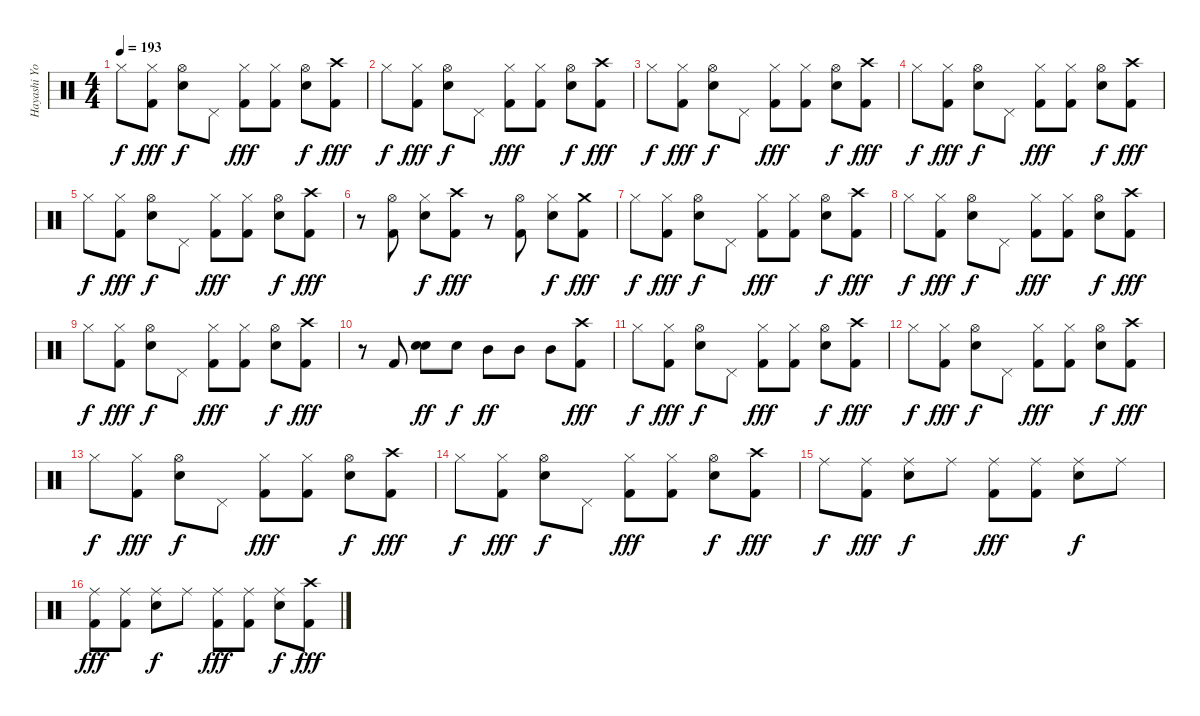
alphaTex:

\track ("Hayashi Yoshiki(Yoshiki)" "Hayashi Yo") {instrument percussion}
\staff {score}
\articulation defaults
\ts (4 4)
\tempo 193
\clef neutral
\ks c "Hi-Hat (closed)".8{dy f}
("Hi-Hat (closed)" "Kick (hit) 2").8{dy fff} ("Hi-Hat (open)" "Electric Snare (hit)").8{dy f} "Pedal Hi-Hat (hit)".8 ("Hi-Hat (closed)" "Kick (hit) 2").8{dy fff} ("Hi-Hat (closed)" "Kick (hit) 2").8 ("Hi-Hat (open)" "Electric Snare (hit)").8{dy f} ("Crash high (hit)" "Kick (hit) 2").8{dy fff} |
"Hi-Hat (closed)".8{dy f} ("Hi-Hat (closed)" "Kick (hit) 2").8{dy fff} ("Hi-Hat (open)" "Electric Snare (hit)").8{dy f} "Pedal Hi-Hat (hit)".8 ("Hi-Hat (closed)" "Kick (hit) 2").8{dy fff} ("Hi-Hat (closed)" "Kick (hit) 2").8 ("Hi-Hat (open)" "Electric Snare (hit)").8{dy f} ("Crash high (hit)" "Kick (hit) 2").8{dy fff} |
"Hi-Hat (closed)".8{dy f} ("Hi-Hat (closed)" "Kick (hit) 2").8{dy fff} ("Hi-Hat (open)" "Electric Snare (hit)").8{dy f} "Pedal Hi-Hat (hit)".8 ("Hi-Hat (closed)" "Kick (hit) 2").8{dy fff} ("Hi-Hat (closed)" "Kick (hit) 2").8 ("Hi-Hat (open)" "Electric Snare (hit)").8{dy f} ("Crash high (hit)" "Kick (hit) 2").8{dy fff} |
"Hi-Hat (closed)".8{dy f} ("Hi-Hat (closed)" "Kick (hit) 2").8{dy fff} ("Hi-Hat (open)" "Electric Snare (hit)").8{dy f} "Pedal Hi-Hat (hit)".8 ("Hi-Hat (closed)" "Kick (hit) 2").8{dy fff} ("Hi-Hat (closed)" "Kick (hit) 2").8 ("Hi-Hat (open)" "Electric Snare (hit)").8{dy f} ("Crash high (hit)" "Kick (hit) 2").8{dy fff} |
"Hi-Hat (closed)".8{dy f} ("Hi-Hat (closed)" "Kick (hit) 2").8{dy fff} ("Hi-Hat (open)" "Electric Snare (hit)").8{dy f} "Pedal Hi-Hat (hit)".8 ("Hi-Hat (closed)" "Kick (hit) 2").8{dy fff} ("Hi-Hat (closed)" "Kick (hit) 2").8 ("Hi-Hat (open)" "Electric Snare (hit)").8{dy f} ("Crash high (hit)" "Kick (hit) 2").8{dy fff} |
r.8 ("Hi-Hat (open)" "Kick (hit) 2").8 ("Hi-Hat (closed)" "Electric Snare (hit)").8{dy f} ("Crash high (hit)" "Kick (hit) 2").8{dy fff} r.8 ("Hi-Hat (open)" "Kick (hit) 2").8 ("Hi-Hat (closed)" "Electric Snare (hit)").8{dy f} ("Crash medium (hit)" "Kick (hit) 2").8{dy fff} |
"Hi-Hat (closed)".8{dy f} ("Hi-Hat (closed)" "Kick (hit) 2").8{dy fff} ("Hi-Hat (open)" "Electric Snare (hit)").8{dy f} "Pedal Hi-Hat (hit)".8 ("Hi-Hat (closed)" "Kick (hit) 2").8{dy fff} ("Hi-Hat (closed)" "Kick (hit) 2").8 ("Hi-Hat (open)" "Electric Snare (hit)").8{dy f} ("Crash high (hit)" "Kick (hit) 2").8{dy fff} |
"Hi-Hat (closed)".8{dy f} ("Hi-Hat (closed)" "Kick (hit) 2").8{dy fff} ("Hi-Hat (open)" "Electric Snare (hit)").8{dy f} "Pedal Hi-Hat (hit)".8 ("Hi-Hat (closed)" "Kick (hit) 2").8{dy fff} ("Hi-Hat (closed)" "Kick (hit) 2").8 ("Hi-Hat (open)" "Electric Snare (hit)").8{dy f} ("Crash high (hit)" "Kick (hit) 2").8{dy fff} |
"Hi-Hat (closed)".8{dy f} ("Hi-Hat (closed)" "Kick (hit) 2").8{dy fff} ("Hi-Hat (open)" "Electric Snare (hit)").8{dy f} "Pedal Hi-Hat (hit)".8 ("Hi-Hat (closed)" "Kick (hit) 2").8{dy fff} ("Hi-Hat (closed)" "Kick (hit) 2").8 ("Hi-Hat (open)" "Electric Snare (hit)").8{dy f} ("Crash high (hit)" "Kick (hit) 2").8{dy fff} |
r.8 "Kick (hit) 2".8 ("Electric Snare (hit)" "Electric Snare (hit)").8{dy ff} "Electric Snare (hit)".8{dy f} "Mid Tom (hit)".8{dy ff} "Mid Tom (hit)".8 "Mid Tom (hit)".8 ("Crash high (hit)" "Kick (hit) 2").8{dy fff} |
"Hi-Hat (closed)".8{dy f} ("Hi-Hat (closed)" "Kick (hit) 2").8{dy fff} ("Hi-Hat (open)" "Electric Snare (hit)").8{dy f} "Pedal Hi-Hat (hit)".8 ("Hi-Hat (closed)" "Kick (hit) 2").8{dy fff} ("Hi-Hat (closed)" "Kick (hit) 2").8 ("Hi-Hat (open)" "Electric Snare (hit)").8{dy f} ("Crash high (hit)" "Kick (hit) 2").8{dy fff} |
"Hi-Hat (closed)".8{dy f} ("Hi-Hat (closed)" "Kick (hit) 2").8{dy fff} ("Hi-Hat (open)" "Electric Snare (hit)").8{dy f} "Pedal Hi-Hat (hit)".8 ("Hi-Hat (closed)" "Kick (hit) 2").8{dy fff} ("Hi-Hat (closed)" "Kick (hit) 2").8 ("Hi-Hat (open)" "Electric Snare (hit)").8{dy f} ("Crash high (hit)" "Kick (hit) 2").8{dy fff} |
"Hi-Hat (closed)".8{dy f} ("Hi-Hat (closed)" "Kick (hit) 2").8{dy fff} ("Hi-Hat (open)" "Electric Snare (hit)").8{dy f} "Pedal Hi-Hat (hit)".8 ("Hi-Hat (closed)" "Kick (hit) 2").8{dy fff} ("Hi-Hat (closed)" "Kick (hit) 2").8 ("Hi-Hat (open)" "Electric Snare (hit)").8{dy f} ("Crash high (hit)" "Kick (hit) 2").8{dy fff} |
"Hi-Hat (closed)".8{dy f} ("Hi-Hat (closed)" "Kick (hit) 2").8{dy fff} ("Hi-Hat (open)" "Electric Snare (hit)").8{dy f} "Pedal Hi-Hat (hit)".8 ("Hi-Hat (closed)" "Kick (hit) 2").8{dy fff} ("Hi-Hat (closed)" "Kick (hit) 2").8 ("Hi-Hat (open)" "Electric Snare (hit)").8{dy f} ("Crash high (hit)" "Kick (hit) 2").8{dy fff} |
"Ride (middle)".8{dy f} ("Ride (middle)" "Kick (hit) 2").8{dy fff} ("Ride (middle)" "Electric Snare (hit)").8{dy f} "Ride (middle)".8 ("Ride (middle)" "Kick (hit) 2").8{dy fff} ("Ride (middle)" "Kick (hit) 2").8 ("Ride (middle)" "Electric Snare (hit)").8{dy f} "Ride (middle)".8 |
("Ride (middle)" "Kick (hit) 2").8{dy fff} ("Ride (middle)" "Kick (hit) 2").8 ("Ride (middle)" "Electric Snare (hit)").8{dy f} "Ride (middle)".8 ("Ride (middle)" "Kick (hit) 2").8{dy fff} ("Ride (middle)" "Kick (hit) 2").8 ("Ride (middle)" "Electric Snare (hit)").8{dy f} ("Crash high (hit)" "Kick (hit) 2").8{dy fff}
